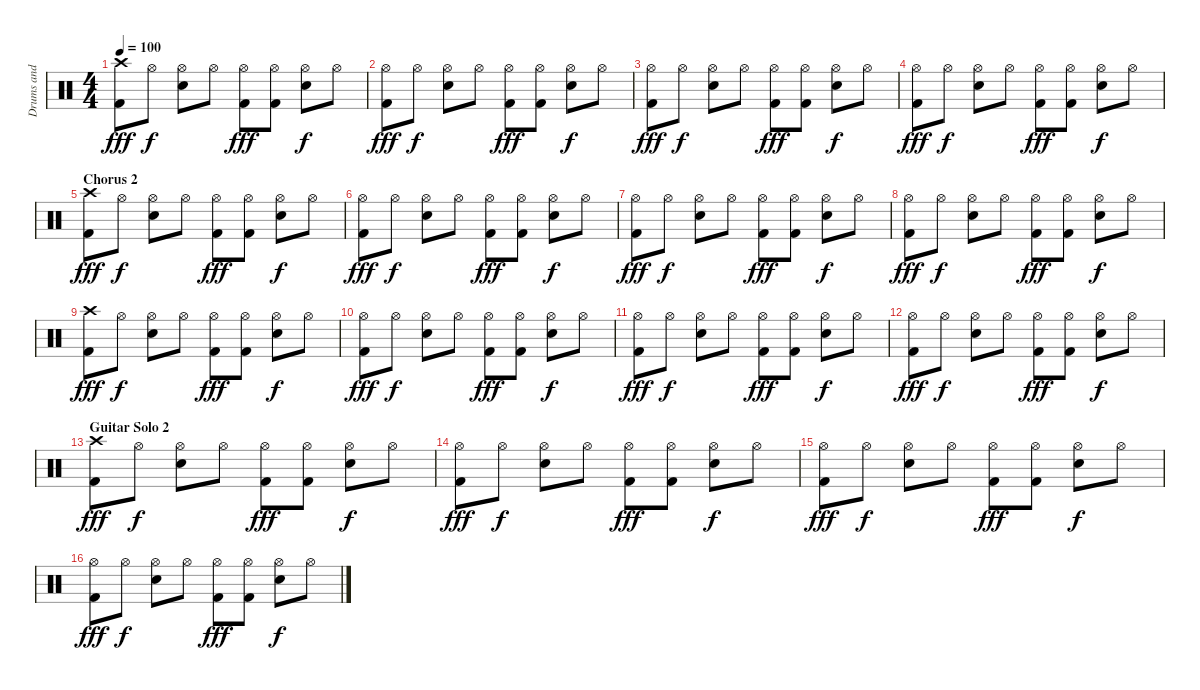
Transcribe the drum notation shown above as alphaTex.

\track ("Drums and Percussion" "Drums and ") {instrument percussion}
\staff {score}
\articulation defaults
\ts (4 4)
\tempo 100
\clef neutral
\ks c
("Crash high (hit)" "Kick (hit) 2").8{dy fff} "Hi-Hat (open)".8{dy f} ("Hi-Hat (open)" "Snare (hit) 2").8 "Hi-Hat (open)".8 ("Hi-Hat (open)" "Kick (hit) 2").8{dy fff} ("Hi-Hat (open)" "Kick (hit) 2").8 ("Hi-Hat (open)" "Snare (hit) 2").8{dy f} "Hi-Hat (open)".8 |
("Hi-Hat (open)" "Kick (hit) 2").8{dy fff} "Hi-Hat (open)".8{dy f} ("Hi-Hat (open)" "Snare (hit) 2").8 "Hi-Hat (open)".8 ("Hi-Hat (open)" "Kick (hit) 2").8{dy fff} ("Hi-Hat (open)" "Kick (hit) 2").8 ("Hi-Hat (open)" "Snare (hit) 2").8{dy f} "Hi-Hat (open)".8 |
("Hi-Hat (open)" "Kick (hit) 2").8{dy fff} "Hi-Hat (open)".8{dy f} ("Hi-Hat (open)" "Snare (hit) 2").8 "Hi-Hat (open)".8 ("Hi-Hat (open)" "Kick (hit) 2").8{dy fff} ("Hi-Hat (open)" "Kick (hit) 2").8 ("Hi-Hat (open)" "Snare (hit) 2").8{dy f} "Hi-Hat (open)".8 |
("Hi-Hat (open)" "Kick (hit) 2").8{dy fff} "Hi-Hat (open)".8{dy f} ("Hi-Hat (open)" "Snare (hit) 2").8 "Hi-Hat (open)".8 ("Hi-Hat (open)" "Kick (hit) 2").8{dy fff} ("Hi-Hat (open)" "Kick (hit) 2").8 ("Hi-Hat (open)" "Snare (hit) 2").8{dy f} "Hi-Hat (open)".8 |
\section ("" "Chorus 2")
("Crash high (hit)" "Kick (hit) 2").8{dy fff} "Hi-Hat (open)".8{dy f} ("Hi-Hat (open)" "Snare (hit) 2").8 "Hi-Hat (open)".8 ("Hi-Hat (open)" "Kick (hit) 2").8{dy fff} ("Hi-Hat (open)" "Kick (hit) 2").8 ("Hi-Hat (open)" "Snare (hit) 2").8{dy f} "Hi-Hat (open)".8 |
("Hi-Hat (open)" "Kick (hit) 2").8{dy fff} "Hi-Hat (open)".8{dy f} ("Hi-Hat (open)" "Snare (hit) 2").8 "Hi-Hat (open)".8 ("Hi-Hat (open)" "Kick (hit) 2").8{dy fff} ("Hi-Hat (open)" "Kick (hit) 2").8 ("Hi-Hat (open)" "Snare (hit) 2").8{dy f} "Hi-Hat (open)".8 |
("Hi-Hat (open)" "Kick (hit) 2").8{dy fff} "Hi-Hat (open)".8{dy f} ("Hi-Hat (open)" "Snare (hit) 2").8 "Hi-Hat (open)".8 ("Hi-Hat (open)" "Kick (hit) 2").8{dy fff} ("Hi-Hat (open)" "Kick (hit) 2").8 ("Hi-Hat (open)" "Snare (hit) 2").8{dy f} "Hi-Hat (open)".8 |
("Hi-Hat (open)" "Kick (hit) 2").8{dy fff} "Hi-Hat (open)".8{dy f} ("Hi-Hat (open)" "Snare (hit) 2").8 "Hi-Hat (open)".8 ("Hi-Hat (open)" "Kick (hit) 2").8{dy fff} ("Hi-Hat (open)" "Kick (hit) 2").8 ("Hi-Hat (open)" "Snare (hit) 2").8{dy f} "Hi-Hat (open)".8 |
("Crash high (hit)" "Kick (hit) 2").8{dy fff} "Hi-Hat (open)".8{dy f} ("Hi-Hat (open)" "Snare (hit) 2").8 "Hi-Hat (open)".8 ("Hi-Hat (open)" "Kick (hit) 2").8{dy fff} ("Hi-Hat (open)" "Kick (hit) 2").8 ("Hi-Hat (open)" "Snare (hit) 2").8{dy f} "Hi-Hat (open)".8 |
("Hi-Hat (open)" "Kick (hit) 2").8{dy fff} "Hi-Hat (open)".8{dy f} ("Hi-Hat (open)" "Snare (hit) 2").8 "Hi-Hat (open)".8 ("Hi-Hat (open)" "Kick (hit) 2").8{dy fff} ("Hi-Hat (open)" "Kick (hit) 2").8 ("Hi-Hat (open)" "Snare (hit) 2").8{dy f} "Hi-Hat (open)".8 |
("Hi-Hat (open)" "Kick (hit) 2").8{dy fff} "Hi-Hat (open)".8{dy f} ("Hi-Hat (open)" "Snare (hit) 2").8 "Hi-Hat (open)".8 ("Hi-Hat (open)" "Kick (hit) 2").8{dy fff} ("Hi-Hat (open)" "Kick (hit) 2").8 ("Hi-Hat (open)" "Snare (hit) 2").8{dy f} "Hi-Hat (open)".8 |
("Hi-Hat (open)" "Kick (hit) 2").8{dy fff} "Hi-Hat (open)".8{dy f} ("Hi-Hat (open)" "Snare (hit) 2").8 "Hi-Hat (open)".8 ("Hi-Hat (open)" "Kick (hit) 2").8{dy fff} ("Hi-Hat (open)" "Kick (hit) 2").8 ("Hi-Hat (open)" "Snare (hit) 2").8{dy f} "Hi-Hat (open)".8 |
\section ("" "Guitar Solo 2")
("Crash high (hit)" "Kick (hit) 2").8{dy fff} "Hi-Hat (open)".8{dy f} ("Hi-Hat (open)" "Snare (hit) 2").8 "Hi-Hat (open)".8 ("Hi-Hat (open)" "Kick (hit) 2").8{dy fff} ("Hi-Hat (open)" "Kick (hit) 2").8 ("Hi-Hat (open)" "Snare (hit) 2").8{dy f} "Hi-Hat (open)".8 |
("Hi-Hat (open)" "Kick (hit) 2").8{dy fff} "Hi-Hat (open)".8{dy f} ("Hi-Hat (open)" "Snare (hit) 2").8 "Hi-Hat (open)".8 ("Hi-Hat (open)" "Kick (hit) 2").8{dy fff} ("Hi-Hat (open)" "Kick (hit) 2").8 ("Hi-Hat (open)" "Snare (hit) 2").8{dy f} "Hi-Hat (open)".8 |
("Hi-Hat (open)" "Kick (hit) 2").8{dy fff} "Hi-Hat (open)".8{dy f} ("Hi-Hat (open)" "Snare (hit) 2").8 "Hi-Hat (open)".8 ("Hi-Hat (open)" "Kick (hit) 2").8{dy fff} ("Hi-Hat (open)" "Kick (hit) 2").8 ("Hi-Hat (open)" "Snare (hit) 2").8{dy f} "Hi-Hat (open)".8 |
("Hi-Hat (open)" "Kick (hit) 2").8{dy fff} "Hi-Hat (open)".8{dy f} ("Hi-Hat (open)" "Snare (hit) 2").8 "Hi-Hat (open)".8 ("Hi-Hat (open)" "Kick (hit) 2").8{dy fff} ("Hi-Hat (open)" "Kick (hit) 2").8 ("Hi-Hat (open)" "Snare (hit) 2").8{dy f} "Hi-Hat (open)".8
